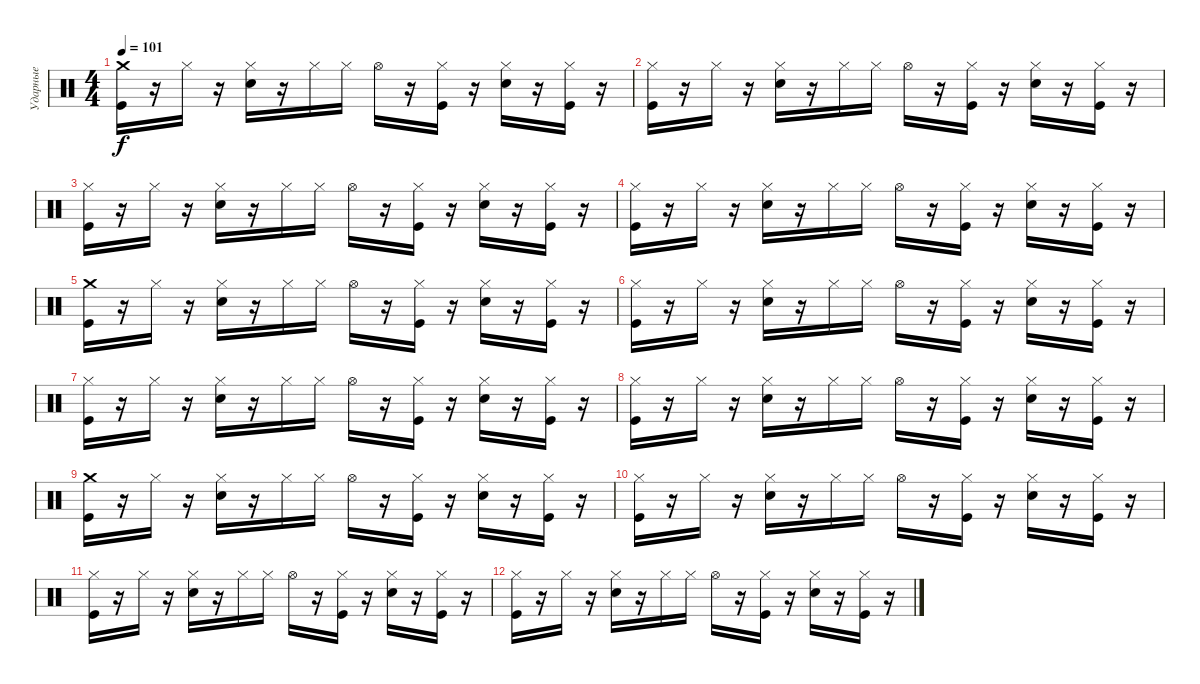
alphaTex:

\track ("Ударные" "Ударные") {instrument percussion}
\staff {score}
\articulation defaults
\ts (4 4)
\tempo 101
\clef neutral
\ks c
("Crash medium (hit)" "Kick (hit)").16{dy f} r.16 "Hi-Hat (closed)".16 r.16 ("Hi-Hat (closed)" "Electric Snare (hit)").16 r.16 "Hi-Hat (closed)".16 "Hi-Hat (closed)".16 "Hi-Hat (open)".16 r.16 ("Hi-Hat (closed)" "Kick (hit)").16 r.16 ("Hi-Hat (closed)" "Electric Snare (hit)").16 r.16 ("Hi-Hat (closed)" "Kick (hit)").16 r.16 |
("Hi-Hat (closed)" "Kick (hit)").16 r.16 "Hi-Hat (closed)".16 r.16 ("Hi-Hat (closed)" "Electric Snare (hit)").16 r.16 "Hi-Hat (closed)".16 "Hi-Hat (closed)".16 "Hi-Hat (open)".16 r.16 ("Hi-Hat (closed)" "Kick (hit)").16 r.16 ("Hi-Hat (closed)" "Electric Snare (hit)").16 r.16 ("Hi-Hat (closed)" "Kick (hit)").16 r.16 |
("Hi-Hat (closed)" "Kick (hit)").16 r.16 "Hi-Hat (closed)".16 r.16 ("Hi-Hat (closed)" "Electric Snare (hit)").16 r.16 "Hi-Hat (closed)".16 "Hi-Hat (closed)".16 "Hi-Hat (open)".16 r.16 ("Hi-Hat (closed)" "Kick (hit)").16 r.16 ("Hi-Hat (closed)" "Electric Snare (hit)").16 r.16 ("Hi-Hat (closed)" "Kick (hit)").16 r.16 |
("Hi-Hat (closed)" "Kick (hit)").16 r.16 "Hi-Hat (closed)".16 r.16 ("Hi-Hat (closed)" "Electric Snare (hit)").16 r.16 "Hi-Hat (closed)".16 "Hi-Hat (closed)".16 "Hi-Hat (open)".16 r.16 ("Hi-Hat (closed)" "Kick (hit)").16 r.16 ("Hi-Hat (closed)" "Electric Snare (hit)").16 r.16 ("Hi-Hat (closed)" "Kick (hit)").16 r.16 |
("Crash medium (hit)" "Kick (hit)").16{volume 0} r.16 "Hi-Hat (closed)".16 r.16 ("Hi-Hat (closed)" "Electric Snare (hit)").16 r.16 "Hi-Hat (closed)".16 "Hi-Hat (closed)".16 "Hi-Hat (open)".16 r.16 ("Hi-Hat (closed)" "Kick (hit)").16 r.16 ("Hi-Hat (closed)" "Electric Snare (hit)").16 r.16 ("Hi-Hat (closed)" "Kick (hit)").16 r.16 |
("Hi-Hat (closed)" "Kick (hit)").16 r.16 "Hi-Hat (closed)".16 r.16 ("Hi-Hat (closed)" "Electric Snare (hit)").16 r.16 "Hi-Hat (closed)".16 "Hi-Hat (closed)".16 "Hi-Hat (open)".16 r.16 ("Hi-Hat (closed)" "Kick (hit)").16 r.16 ("Hi-Hat (closed)" "Electric Snare (hit)").16 r.16 ("Hi-Hat (closed)" "Kick (hit)").16 r.16 |
("Hi-Hat (closed)" "Kick (hit)").16 r.16 "Hi-Hat (closed)".16 r.16 ("Hi-Hat (closed)" "Electric Snare (hit)").16 r.16 "Hi-Hat (closed)".16 "Hi-Hat (closed)".16 "Hi-Hat (open)".16 r.16 ("Hi-Hat (closed)" "Kick (hit)").16 r.16 ("Hi-Hat (closed)" "Electric Snare (hit)").16 r.16 ("Hi-Hat (closed)" "Kick (hit)").16 r.16 |
("Hi-Hat (closed)" "Kick (hit)").16 r.16 "Hi-Hat (closed)".16 r.16 ("Hi-Hat (closed)" "Electric Snare (hit)").16 r.16 "Hi-Hat (closed)".16 "Hi-Hat (closed)".16 "Hi-Hat (open)".16 r.16 ("Hi-Hat (closed)" "Kick (hit)").16 r.16 ("Hi-Hat (closed)" "Electric Snare (hit)").16 r.16 ("Hi-Hat (closed)" "Kick (hit)").16 r.16 |
("Crash medium (hit)" "Kick (hit)").16 r.16 "Hi-Hat (closed)".16 r.16 ("Hi-Hat (closed)" "Electric Snare (hit)").16 r.16 "Hi-Hat (closed)".16 "Hi-Hat (closed)".16 "Hi-Hat (open)".16 r.16 ("Hi-Hat (closed)" "Kick (hit)").16 r.16 ("Hi-Hat (closed)" "Electric Snare (hit)").16 r.16 ("Hi-Hat (closed)" "Kick (hit)").16 r.16 |
("Hi-Hat (closed)" "Kick (hit)").16 r.16 "Hi-Hat (closed)".16 r.16 ("Hi-Hat (closed)" "Electric Snare (hit)").16 r.16 "Hi-Hat (closed)".16 "Hi-Hat (closed)".16 "Hi-Hat (open)".16 r.16 ("Hi-Hat (closed)" "Kick (hit)").16 r.16 ("Hi-Hat (closed)" "Electric Snare (hit)").16 r.16 ("Hi-Hat (closed)" "Kick (hit)").16 r.16 |
("Hi-Hat (closed)" "Kick (hit)").16 r.16 "Hi-Hat (closed)".16 r.16 ("Hi-Hat (closed)" "Electric Snare (hit)").16 r.16 "Hi-Hat (closed)".16 "Hi-Hat (closed)".16 "Hi-Hat (open)".16 r.16 ("Hi-Hat (closed)" "Kick (hit)").16 r.16 ("Hi-Hat (closed)" "Electric Snare (hit)").16 r.16 ("Hi-Hat (closed)" "Kick (hit)").16 r.16 |
("Hi-Hat (closed)" "Kick (hit)").16 r.16 "Hi-Hat (closed)".16 r.16 ("Hi-Hat (closed)" "Electric Snare (hit)").16 r.16 "Hi-Hat (closed)".16 "Hi-Hat (closed)".16 "Hi-Hat (open)".16 r.16 ("Hi-Hat (closed)" "Kick (hit)").16 r.16 ("Hi-Hat (closed)" "Electric Snare (hit)").16 r.16 ("Hi-Hat (closed)" "Kick (hit)").16 r.16
